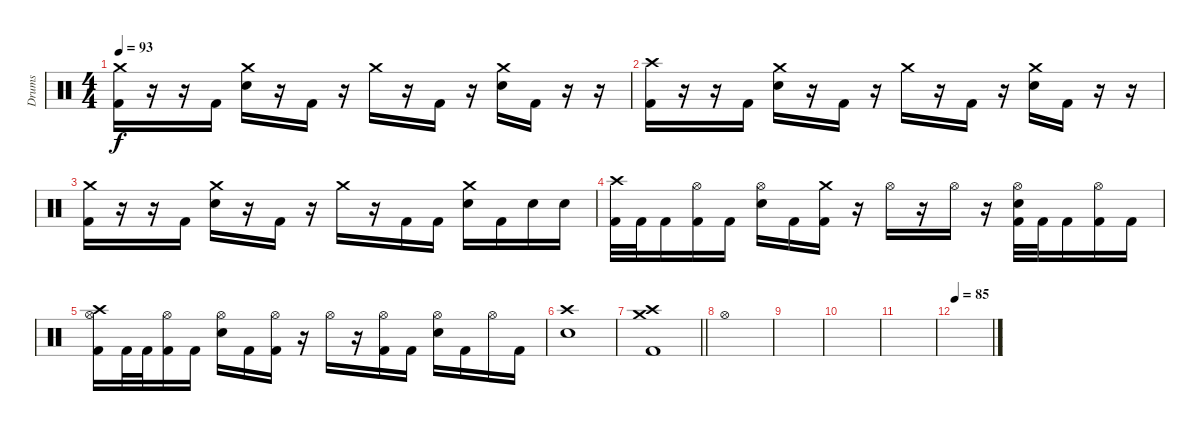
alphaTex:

\track ("Drums" "Drums") {instrument percussion}
\staff {score}
\articulation defaults
\ts (4 4)
\tempo 93
\clef neutral
\ks c
("Kick (hit) 2" "Crash medium (hit)").16{dy f} r.16 r.16 "Kick (hit) 2".16 ("Snare (hit) 2" "Crash medium (hit)").16 r.16 "Kick (hit) 2".16 r.16 "Crash medium (hit)".16 r.16 "Kick (hit) 2".16 r.16 ("Snare (hit) 2" "Crash medium (hit)").16 "Kick (hit) 2".16 r.16 r.16 |
("Kick (hit) 2" "Crash high (hit)").16 r.16 r.16 "Kick (hit) 2".16 ("Snare (hit) 2" "Crash medium (hit)").16 r.16 "Kick (hit) 2".16 r.16 "Crash medium (hit)".16 r.16 "Kick (hit) 2".16 r.16 ("Snare (hit) 2" "Crash medium (hit)").16 "Kick (hit) 2".16 r.16 r.16 |
("Kick (hit) 2" "Crash medium (hit)").16 r.16 r.16 "Kick (hit) 2".16 ("Snare (hit) 2" "Crash medium (hit)").16 r.16 "Kick (hit) 2".16 r.16 "Crash medium (hit)".16 r.16 "Kick (hit) 2".16 "Kick (hit) 2".16 ("Snare (hit) 2" "Crash medium (hit)").16 "Kick (hit) 2".16 "Snare (hit) 2".16 "Snare (hit) 2".16 |
("Kick (hit) 2" "Crash high (hit)").32 "Kick (hit) 2".32 "Kick (hit) 2".16 ("Hi-Hat (open)" "Kick (hit) 2").16 "Kick (hit) 2".16 ("Hi-Hat (open)" "Snare (hit) 2").16 "Kick (hit) 2".16 ("Kick (hit) 2" "Crash medium (hit)").16 r.16 "Hi-Hat (open)".16 r.16 "Hi-Hat (open)".16 r.16 ("Hi-Hat (open)" "Kick (hit) 2" "Snare (hit) 2").32 "Kick (hit) 2".32 "Kick (hit) 2".16 ("Hi-Hat (open)" "Kick (hit) 2").16 "Kick (hit) 2".16 |
("Hi-Hat (open)" "Kick (hit) 2" "Crash high (hit)").16 "Kick (hit) 2".32 "Kick (hit) 2".32 ("Hi-Hat (open)" "Kick (hit) 2").16 "Kick (hit) 2".16 ("Hi-Hat (open)" "Snare (hit) 2").16 "Kick (hit) 2".16 ("Hi-Hat (open)" "Kick (hit) 2").16 r.16 "Hi-Hat (open)".16 r.16 ("Hi-Hat (open)" "Kick (hit) 2").16 "Kick (hit) 2".16 ("Hi-Hat (open)" "Snare (hit) 2").16 "Kick (hit) 2".16 "Hi-Hat (open)".16 "Kick (hit) 2".16 |
("Snare (hit) 2" "Crash high (hit)").1 |
\barLineRight lightlight
("Kick (hit) 2" "Crash medium (hit)" "Crash high (hit)").1 |
"Hi-Hat (open)".1 |
|
|
|
\tempo 85
